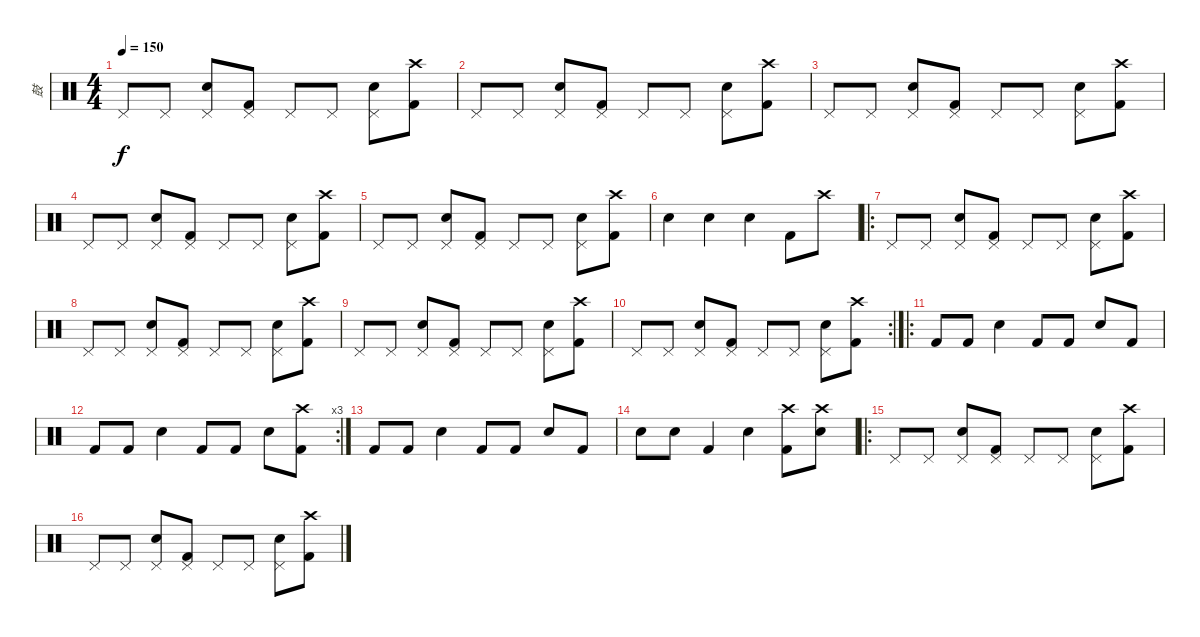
\track ("鼓" "鼓") {instrument percussion}
\staff {score}
\articulation defaults
\ts (4 4)
\tempo 150
\clef neutral
\ks c "Pedal Hi-Hat (hit)".8{dy f} "Pedal Hi-Hat (hit)".8
("Pedal Hi-Hat (hit)" "Electric Snare (hit)").8 ("Pedal Hi-Hat (hit)" "Kick (hit) 2").8 "Pedal Hi-Hat (hit)".8 "Pedal Hi-Hat (hit)".8 ("Pedal Hi-Hat (hit)" "Electric Snare (hit)").8 ("Crash high (hit)" "Kick (hit) 2").8 |
"Pedal Hi-Hat (hit)".8 "Pedal Hi-Hat (hit)".8 ("Pedal Hi-Hat (hit)" "Electric Snare (hit)").8 ("Pedal Hi-Hat (hit)" "Kick (hit) 2").8 "Pedal Hi-Hat (hit)".8 "Pedal Hi-Hat (hit)".8 ("Pedal Hi-Hat (hit)" "Electric Snare (hit)").8 ("Crash high (hit)" "Kick (hit) 2").8 |
"Pedal Hi-Hat (hit)".8 "Pedal Hi-Hat (hit)".8 ("Pedal Hi-Hat (hit)" "Electric Snare (hit)").8 ("Pedal Hi-Hat (hit)" "Kick (hit) 2").8 "Pedal Hi-Hat (hit)".8 "Pedal Hi-Hat (hit)".8 ("Pedal Hi-Hat (hit)" "Electric Snare (hit)").8 ("Crash high (hit)" "Kick (hit) 2").8 |
"Pedal Hi-Hat (hit)".8 "Pedal Hi-Hat (hit)".8 ("Pedal Hi-Hat (hit)" "Electric Snare (hit)").8 ("Pedal Hi-Hat (hit)" "Kick (hit) 2").8 "Pedal Hi-Hat (hit)".8 "Pedal Hi-Hat (hit)".8 ("Pedal Hi-Hat (hit)" "Electric Snare (hit)").8 ("Crash high (hit)" "Kick (hit) 2").8 |
"Pedal Hi-Hat (hit)".8 "Pedal Hi-Hat (hit)".8 ("Pedal Hi-Hat (hit)" "Electric Snare (hit)").8 ("Pedal Hi-Hat (hit)" "Kick (hit) 2").8 "Pedal Hi-Hat (hit)".8 "Pedal Hi-Hat (hit)".8 ("Pedal Hi-Hat (hit)" "Electric Snare (hit)").8 ("Crash high (hit)" "Kick (hit) 2").8 |
"Electric Snare (hit)".4 "Electric Snare (hit)".4 "Electric Snare (hit)".4 "Kick (hit) 2".8 "Crash high (hit)".8 |
\ro "Pedal Hi-Hat (hit)".8 "Pedal Hi-Hat (hit)".8
("Pedal Hi-Hat (hit)" "Electric Snare (hit)").8 ("Pedal Hi-Hat (hit)" "Kick (hit) 2").8 "Pedal Hi-Hat (hit)".8 "Pedal Hi-Hat (hit)".8 ("Pedal Hi-Hat (hit)" "Electric Snare (hit)").8 ("Crash high (hit)" "Kick (hit) 2").8 |
"Pedal Hi-Hat (hit)".8 "Pedal Hi-Hat (hit)".8 ("Pedal Hi-Hat (hit)" "Electric Snare (hit)").8 ("Pedal Hi-Hat (hit)" "Kick (hit) 2").8 "Pedal Hi-Hat (hit)".8 "Pedal Hi-Hat (hit)".8 ("Pedal Hi-Hat (hit)" "Electric Snare (hit)").8 ("Crash high (hit)" "Kick (hit) 2").8 |
"Pedal Hi-Hat (hit)".8 "Pedal Hi-Hat (hit)".8 ("Pedal Hi-Hat (hit)" "Electric Snare (hit)").8 ("Pedal Hi-Hat (hit)" "Kick (hit) 2").8 "Pedal Hi-Hat (hit)".8 "Pedal Hi-Hat (hit)".8 ("Pedal Hi-Hat (hit)" "Electric Snare (hit)").8 ("Crash high (hit)" "Kick (hit) 2").8 |
\rc 2 "Pedal Hi-Hat (hit)".8 "Pedal Hi-Hat (hit)".8
("Pedal Hi-Hat (hit)" "Electric Snare (hit)").8 ("Pedal Hi-Hat (hit)" "Kick (hit) 2").8 "Pedal Hi-Hat (hit)".8 "Pedal Hi-Hat (hit)".8 ("Pedal Hi-Hat (hit)" "Electric Snare (hit)").8 ("Crash high (hit)" "Kick (hit) 2").8 |
\ro "Kick (hit) 2".8 "Kick (hit) 2".8 "Electric Snare (hit)".4 "Kick (hit) 2".8 "Kick (hit) 2".8 "Electric Snare (hit)".8 "Kick (hit) 2".8
|
\rc 3 "Kick (hit) 2".8 "Kick (hit) 2".8 "Electric Snare (hit)".4 "Kick (hit) 2".8 "Kick (hit) 2".8 "Electric Snare (hit)".8
("Crash high (hit)" "Kick (hit) 2").8 |
"Kick (hit) 2".8 "Kick (hit) 2".8 "Electric Snare (hit)".4 "Kick (hit) 2".8 "Kick (hit) 2".8 "Electric Snare (hit)".8 "Kick (hit) 2".8 |
"Electric Snare (hit)".8 "Electric Snare (hit)".8 "Kick (hit) 2".4 "Electric Snare (hit)".4 ("Crash high (hit)" "Kick (hit) 2").8 ("Crash high (hit)" "Electric Snare (hit)").8 |
\ro "Pedal Hi-Hat (hit)".8 "Pedal Hi-Hat (hit)".8
("Pedal Hi-Hat (hit)" "Electric Snare (hit)").8 ("Pedal Hi-Hat (hit)" "Kick (hit) 2").8 "Pedal Hi-Hat (hit)".8 "Pedal Hi-Hat (hit)".8 ("Pedal Hi-Hat (hit)" "Electric Snare (hit)").8 ("Crash high (hit)" "Kick (hit) 2").8 |
"Pedal Hi-Hat (hit)".8 "Pedal Hi-Hat (hit)".8 ("Pedal Hi-Hat (hit)" "Electric Snare (hit)").8 ("Pedal Hi-Hat (hit)" "Kick (hit) 2").8 "Pedal Hi-Hat (hit)".8 "Pedal Hi-Hat (hit)".8 ("Pedal Hi-Hat (hit)" "Electric Snare (hit)").8 ("Crash high (hit)" "Kick (hit) 2").8
